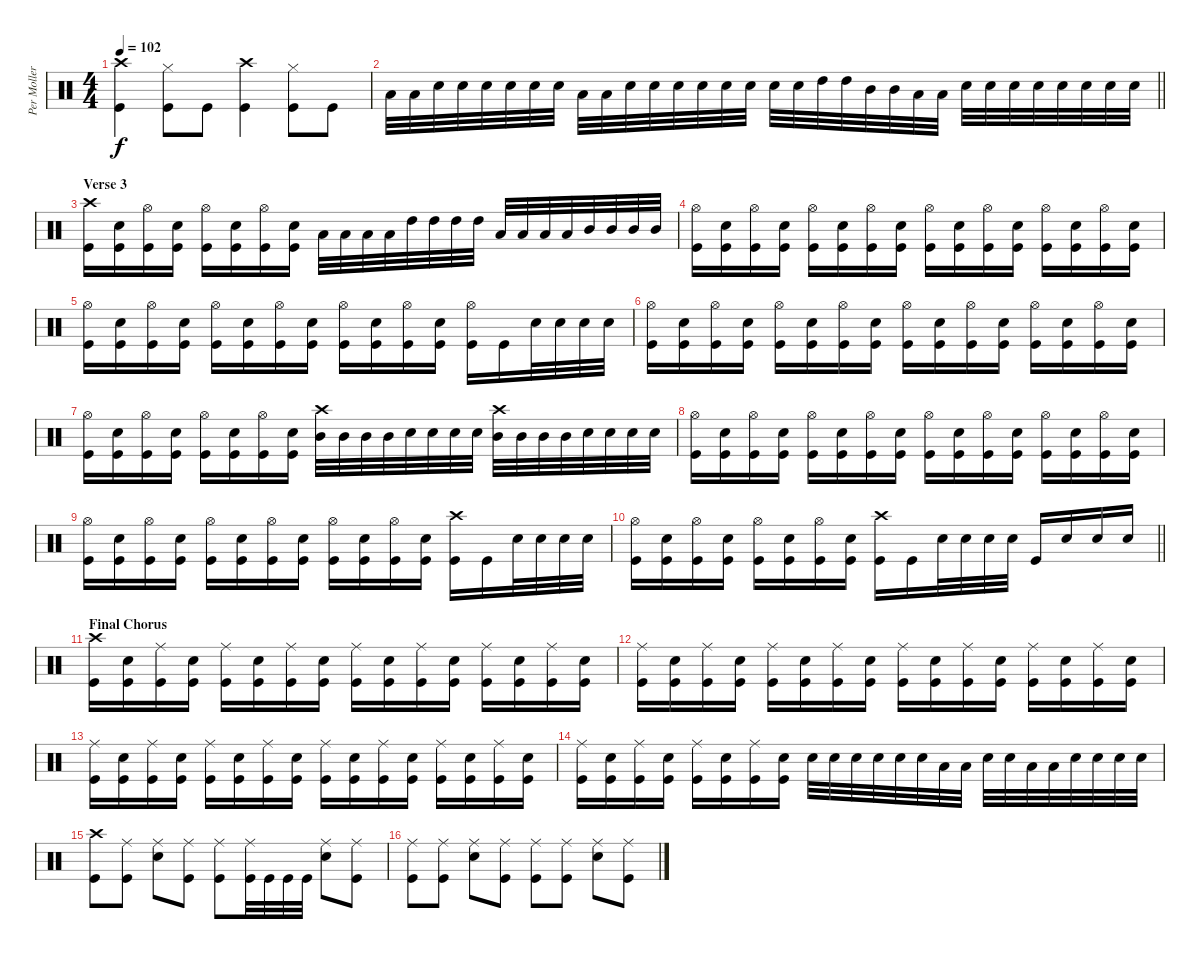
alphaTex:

\track ("Per Moller Jensen" "Per Moller") {instrument percussion}
\staff {score}
\articulation defaults
\ts (4 4)
\tempo 102
\clef neutral
\ks c
("Crash high (hit)" "Kick (hit)").4{dy f} ("Hi-Hat (closed)" "Kick (hit)").8 "Kick (hit)".8 ("Crash high (hit)" "Kick (hit)").4 ("Hi-Hat (closed)" "Kick (hit)").8 "Kick (hit)".8 |
\barLineRight lightlight "Low Tom (hit)".32 "Low Tom (hit)".32 "Snare (hit) 2".32 "Snare (hit) 2".32 "Snare (hit) 2".32 "Snare (hit) 2".32 "Snare (hit) 2".32 "Snare (hit) 2".32 "Low Tom (hit)".32 "Low Tom (hit)".32 "Snare (hit) 2".32 "Snare (hit) 2".32 "Snare (hit) 2".32 "Snare (hit) 2".32 "Snare (hit) 2".32 "Snare (hit) 2".32 "Snare (hit) 2".32 "Snare (hit) 2".32 "High Tom (hit)".32 "High Tom (hit)".32 "Mid Tom (hit)".32 "Mid Tom (hit)".32 "Low Tom (hit)".32 "Low Tom (hit)".32 "Snare (hit) 2".32 "Snare (hit) 2".32 "Snare (hit) 2".32 "Snare (hit) 2".32 "Snare (hit) 2".32 "Snare (hit) 2".32 "Snare (hit) 2".32 "Snare (hit) 2".32
|
\section ("" "Verse 3")
("Crash high (hit)" "Kick (hit)").16 ("Snare (hit) 2" "Kick (hit)").16 ("Hi-Hat (open)" "Kick (hit)").16 ("Snare (hit) 2" "Kick (hit)").16 ("Hi-Hat (open)" "Kick (hit)").16 ("Snare (hit) 2" "Kick (hit)").16 ("Hi-Hat (open)" "Kick (hit)").16 ("Snare (hit) 2" "Kick (hit)").16 "Low Tom (hit)".32 "Low Tom (hit)".32 "Low Tom (hit)".32 "Low Tom (hit)".32 "High Tom (hit)".32 "High Tom (hit)".32 "High Tom (hit)".32 "High Tom (hit)".32 "Low Tom (hit)".32 "Low Tom (hit)".32 "Low Tom (hit)".32 "Low Tom (hit)".32 "Mid Tom (hit)".32 "Mid Tom (hit)".32 "Mid Tom (hit)".32 "Mid Tom (hit)".32 |
("Hi-Hat (open)" "Kick (hit)").16 ("Snare (hit) 2" "Kick (hit)").16 ("Hi-Hat (open)" "Kick (hit)").16 ("Snare (hit) 2" "Kick (hit)").16 ("Hi-Hat (open)" "Kick (hit)").16 ("Snare (hit) 2" "Kick (hit)").16 ("Hi-Hat (open)" "Kick (hit)").16 ("Snare (hit) 2" "Kick (hit)").16 ("Hi-Hat (open)" "Kick (hit)").16 ("Snare (hit) 2" "Kick (hit)").16 ("Hi-Hat (open)" "Kick (hit)").16 ("Snare (hit) 2" "Kick (hit)").16 ("Hi-Hat (open)" "Kick (hit)").16 ("Snare (hit) 2" "Kick (hit)").16 ("Hi-Hat (open)" "Kick (hit)").16 ("Snare (hit) 2" "Kick (hit)").16 |
("Hi-Hat (open)" "Kick (hit)").16 ("Snare (hit) 2" "Kick (hit)").16 ("Hi-Hat (open)" "Kick (hit)").16 ("Snare (hit) 2" "Kick (hit)").16 ("Hi-Hat (open)" "Kick (hit)").16 ("Snare (hit) 2" "Kick (hit)").16 ("Hi-Hat (open)" "Kick (hit)").16 ("Snare (hit) 2" "Kick (hit)").16 ("Hi-Hat (open)" "Kick (hit)").16 ("Snare (hit) 2" "Kick (hit)").16 ("Hi-Hat (open)" "Kick (hit)").16 ("Snare (hit) 2" "Kick (hit)").16 ("Hi-Hat (open)" "Kick (hit)").16 "Kick (hit)".16 "Snare (hit) 2".32 "Snare (hit) 2".32 "Snare (hit) 2".32 "Snare (hit) 2".32 |
("Hi-Hat (open)" "Kick (hit)").16 ("Snare (hit) 2" "Kick (hit)").16 ("Hi-Hat (open)" "Kick (hit)").16 ("Snare (hit) 2" "Kick (hit)").16 ("Hi-Hat (open)" "Kick (hit)").16 ("Snare (hit) 2" "Kick (hit)").16 ("Hi-Hat (open)" "Kick (hit)").16 ("Snare (hit) 2" "Kick (hit)").16 ("Hi-Hat (open)" "Kick (hit)").16 ("Snare (hit) 2" "Kick (hit)").16 ("Hi-Hat (open)" "Kick (hit)").16 ("Snare (hit) 2" "Kick (hit)").16 ("Hi-Hat (open)" "Kick (hit)").16 ("Snare (hit) 2" "Kick (hit)").16 ("Hi-Hat (open)" "Kick (hit)").16 ("Snare (hit) 2" "Kick (hit)").16 |
("Hi-Hat (open)" "Kick (hit)").16 ("Snare (hit) 2" "Kick (hit)").16 ("Hi-Hat (open)" "Kick (hit)").16 ("Snare (hit) 2" "Kick (hit)").16 ("Hi-Hat (open)" "Kick (hit)").16 ("Snare (hit) 2" "Kick (hit)").16 ("Hi-Hat (open)" "Kick (hit)").16 ("Snare (hit) 2" "Kick (hit)").16 ("Crash high (hit)" "Mid Tom (hit)").32 "Mid Tom (hit)".32 "Mid Tom (hit)".32 "Mid Tom (hit)".32 "Snare (hit) 2".32 "Snare (hit) 2".32 "Snare (hit) 2".32 "Snare (hit) 2".32 ("Crash high (hit)" "Mid Tom (hit)").32 "Mid Tom (hit)".32 "Mid Tom (hit)".32 "Mid Tom (hit)".32 "Snare (hit) 2".32 "Snare (hit) 2".32 "Snare (hit) 2".32 "Snare (hit) 2".32 |
("Hi-Hat (open)" "Kick (hit)").16 ("Snare (hit) 2" "Kick (hit)").16 ("Hi-Hat (open)" "Kick (hit)").16 ("Snare (hit) 2" "Kick (hit)").16 ("Hi-Hat (open)" "Kick (hit)").16 ("Snare (hit) 2" "Kick (hit)").16 ("Hi-Hat (open)" "Kick (hit)").16 ("Snare (hit) 2" "Kick (hit)").16 ("Hi-Hat (open)" "Kick (hit)").16 ("Snare (hit) 2" "Kick (hit)").16 ("Hi-Hat (open)" "Kick (hit)").16 ("Snare (hit) 2" "Kick (hit)").16 ("Hi-Hat (open)" "Kick (hit)").16 ("Snare (hit) 2" "Kick (hit)").16 ("Hi-Hat (open)" "Kick (hit)").16 ("Snare (hit) 2" "Kick (hit)").16 |
("Hi-Hat (open)" "Kick (hit)").16 ("Snare (hit) 2" "Kick (hit)").16 ("Hi-Hat (open)" "Kick (hit)").16 ("Snare (hit) 2" "Kick (hit)").16 ("Hi-Hat (open)" "Kick (hit)").16 ("Snare (hit) 2" "Kick (hit)").16 ("Hi-Hat (open)" "Kick (hit)").16 ("Snare (hit) 2" "Kick (hit)").16 ("Hi-Hat (open)" "Kick (hit)").16 ("Snare (hit) 2" "Kick (hit)").16 ("Hi-Hat (open)" "Kick (hit)").16 ("Snare (hit) 2" "Kick (hit)").16 ("Crash high (hit)" "Kick (hit)").16 "Kick (hit)".16 "Snare (hit) 2".32 "Snare (hit) 2".32 "Snare (hit) 2".32 "Snare (hit) 2".32 |
\barLineRight lightlight
("Hi-Hat (open)" "Kick (hit)").16 ("Snare (hit) 2" "Kick (hit)").16 ("Hi-Hat (open)" "Kick (hit)").16 ("Snare (hit) 2" "Kick (hit)").16 ("Hi-Hat (open)" "Kick (hit)").16 ("Snare (hit) 2" "Kick (hit)").16 ("Hi-Hat (open)" "Kick (hit)").16 ("Snare (hit) 2" "Kick (hit)").16 ("Crash high (hit)" "Kick (hit)").16 "Kick (hit)".16 "Snare (hit) 2".32 "Snare (hit) 2".32 "Snare (hit) 2".32 "Snare (hit) 2".32 "Kick (hit)".16 "Snare (hit) 2".16 "Snare (hit) 2".16 "Snare (hit) 2".16 |
\section ("" "Final Chorus")
("Crash high (hit)" "Kick (hit)").16 ("Snare (hit) 2" "Kick (hit)").16 ("Ride (middle)" "Kick (hit)").16 ("Snare (hit) 2" "Kick (hit)").16 ("Ride (middle)" "Kick (hit)").16 ("Snare (hit) 2" "Kick (hit)").16 ("Ride (middle)" "Kick (hit)").16 ("Snare (hit) 2" "Kick (hit)").16 ("Ride (middle)" "Kick (hit)").16 ("Snare (hit) 2" "Kick (hit)").16 ("Ride (middle)" "Kick (hit)").16 ("Snare (hit) 2" "Kick (hit)").16 ("Ride (middle)" "Kick (hit)").16 ("Snare (hit) 2" "Kick (hit)").16 ("Ride (middle)" "Kick (hit)").16 ("Snare (hit) 2" "Kick (hit)").16 |
("Ride (middle)" "Kick (hit)").16 ("Snare (hit) 2" "Kick (hit)").16 ("Ride (middle)" "Kick (hit)").16 ("Snare (hit) 2" "Kick (hit)").16 ("Ride (middle)" "Kick (hit)").16 ("Snare (hit) 2" "Kick (hit)").16 ("Ride (middle)" "Kick (hit)").16 ("Snare (hit) 2" "Kick (hit)").16 ("Ride (middle)" "Kick (hit)").16 ("Snare (hit) 2" "Kick (hit)").16 ("Ride (middle)" "Kick (hit)").16 ("Snare (hit) 2" "Kick (hit)").16 ("Ride (middle)" "Kick (hit)").16 ("Snare (hit) 2" "Kick (hit)").16 ("Ride (middle)" "Kick (hit)").16 ("Snare (hit) 2" "Kick (hit)").16 |
("Ride (middle)" "Kick (hit)").16 ("Snare (hit) 2" "Kick (hit)").16 ("Ride (middle)" "Kick (hit)").16 ("Snare (hit) 2" "Kick (hit)").16 ("Ride (middle)" "Kick (hit)").16 ("Snare (hit) 2" "Kick (hit)").16 ("Ride (middle)" "Kick (hit)").16 ("Snare (hit) 2" "Kick (hit)").16 ("Ride (middle)" "Kick (hit)").16 ("Snare (hit) 2" "Kick (hit)").16 ("Ride (middle)" "Kick (hit)").16 ("Snare (hit) 2" "Kick (hit)").16 ("Ride (middle)" "Kick (hit)").16 ("Snare (hit) 2" "Kick (hit)").16 ("Ride (middle)" "Kick (hit)").16 ("Snare (hit) 2" "Kick (hit)").16 |
("Ride (middle)" "Kick (hit)").16 ("Snare (hit) 2" "Kick (hit)").16 ("Ride (middle)" "Kick (hit)").16 ("Snare (hit) 2" "Kick (hit)").16 ("Ride (middle)" "Kick (hit)").16 ("Snare (hit) 2" "Kick (hit)").16 ("Ride (middle)" "Kick (hit)").16 ("Snare (hit) 2" "Kick (hit)").16 "Snare (hit) 2".32 "Snare (hit) 2".32 "Snare (hit) 2".32 "Snare (hit) 2".32 "Snare (hit) 2".32 "Snare (hit) 2".32 "Low Tom (hit)".32 "Low Tom (hit)".32 "Snare (hit) 2".32 "Snare (hit) 2".32 "Low Tom (hit)".32 "Low Tom (hit)".32 "Snare (hit) 2".32 "Snare (hit) 2".32 "Snare (hit) 2".32 "Snare (hit) 2".32 |
("Crash high (hit)" "Kick (hit)").8 ("Ride (middle)" "Kick (hit)").8 ("Ride (middle)" "Snare (hit) 2").8 ("Ride (middle)" "Kick (hit)").8 ("Ride (middle)" "Kick (hit)").8 ("Ride (middle)" "Kick (hit)").32 "Kick (hit)".32 "Kick (hit)".32 "Kick (hit)".32 ("Ride (middle)" "Snare (hit) 2").8 ("Ride (middle)" "Kick (hit)").8 |
("Ride (middle)" "Kick (hit)").8 ("Ride (middle)" "Kick (hit)").8 ("Ride (middle)" "Snare (hit) 2").8 ("Ride (middle)" "Kick (hit)").8 ("Ride (middle)" "Kick (hit)").8 ("Ride (middle)" "Kick (hit)").8 ("Ride (middle)" "Snare (hit) 2").8 ("Ride (middle)" "Kick (hit)").8
